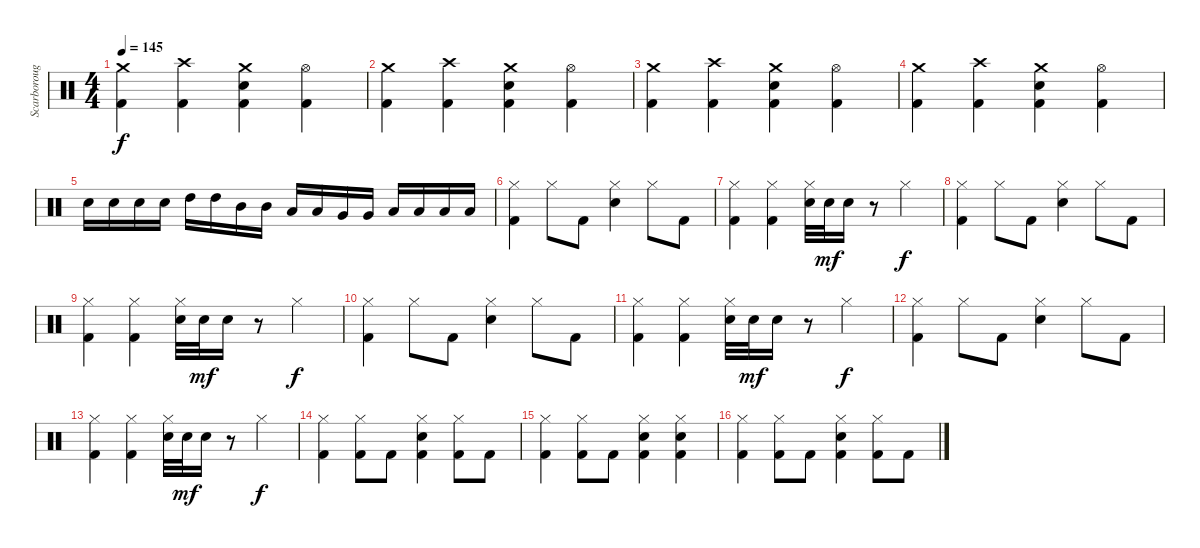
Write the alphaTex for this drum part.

\track ("Scarborough" "Scarboroug") {instrument percussion}
\staff {score}
\articulation defaults
\ts (4 4)
\tempo 145
\clef neutral
\ks c
("Crash medium (hit)" "Kick (hit) 2").4{dy f} ("Crash high (hit)" "Kick (hit) 2").4 ("Crash medium (hit)" "Kick (hit) 2" "Snare (hit) 2").4 ("Hi-Hat (open)" "Kick (hit) 2").4 |
("Crash medium (hit)" "Kick (hit) 2").4 ("Crash high (hit)" "Kick (hit) 2").4 ("Crash medium (hit)" "Kick (hit) 2" "Snare (hit) 2").4 ("Hi-Hat (open)" "Kick (hit) 2").4 |
("Crash medium (hit)" "Kick (hit) 2").4 ("Crash high (hit)" "Kick (hit) 2").4 ("Crash medium (hit)" "Kick (hit) 2" "Snare (hit) 2").4 ("Hi-Hat (open)" "Kick (hit) 2").4 |
("Crash medium (hit)" "Kick (hit) 2").4 ("Crash high (hit)" "Kick (hit) 2").4 ("Crash medium (hit)" "Kick (hit) 2" "Snare (hit) 2").4 ("Hi-Hat (open)" "Kick (hit) 2").4 |
"Snare (hit) 2".16 "Snare (hit) 2".16 "Snare (hit) 2".16 "Snare (hit) 2".16 "High Tom (hit)".16 "High Tom (hit)".16 "Mid Tom (hit)".16 "Mid Tom (hit)".16 "Low Tom (hit)".16 "Low Tom (hit)".16 "Very Low Tom (hit)".16 "Very Low Tom (hit)".16 "Low Floor Tom (hit)".16 "Low Floor Tom (hit)".16 "Low Floor Tom (hit)".16 "Low Floor Tom (hit)".16 |
("Hi-Hat (closed)" "Kick (hit) 2").4 "Hi-Hat (closed)".8 "Kick (hit) 2".8 ("Hi-Hat (closed)" "Snare (hit) 2").4 "Hi-Hat (closed)".8 "Kick (hit) 2".8 |
("Hi-Hat (closed)" "Kick (hit) 2").4 ("Hi-Hat (closed)" "Kick (hit) 2").4 ("Hi-Hat (closed)" "Snare (hit) 2").32 "Snare (hit) 2".32{dy mf} "Snare (hit) 2".16 r.8 "Hi-Hat (closed)".4{dy f} |
("Hi-Hat (closed)" "Kick (hit) 2").4 "Hi-Hat (closed)".8 "Kick (hit) 2".8 ("Hi-Hat (closed)" "Snare (hit) 2").4 "Hi-Hat (closed)".8 "Kick (hit) 2".8 |
("Hi-Hat (closed)" "Kick (hit) 2").4 ("Hi-Hat (closed)" "Kick (hit) 2").4 ("Hi-Hat (closed)" "Snare (hit) 2").32 "Snare (hit) 2".32{dy mf} "Snare (hit) 2".16 r.8 "Hi-Hat (closed)".4{dy f} |
("Hi-Hat (closed)" "Kick (hit) 2").4 "Hi-Hat (closed)".8 "Kick (hit) 2".8 ("Hi-Hat (closed)" "Snare (hit) 2").4 "Hi-Hat (closed)".8 "Kick (hit) 2".8 |
("Hi-Hat (closed)" "Kick (hit) 2").4 ("Hi-Hat (closed)" "Kick (hit) 2").4 ("Hi-Hat (closed)" "Snare (hit) 2").32 "Snare (hit) 2".32{dy mf} "Snare (hit) 2".16 r.8 "Hi-Hat (closed)".4{dy f} |
("Hi-Hat (closed)" "Kick (hit) 2").4 "Hi-Hat (closed)".8 "Kick (hit) 2".8 ("Hi-Hat (closed)" "Snare (hit) 2").4 "Hi-Hat (closed)".8 "Kick (hit) 2".8 |
("Hi-Hat (closed)" "Kick (hit) 2").4 ("Hi-Hat (closed)" "Kick (hit) 2").4 ("Hi-Hat (closed)" "Snare (hit) 2").32 "Snare (hit) 2".32{dy mf} "Snare (hit) 2".16 r.8 "Hi-Hat (closed)".4{dy f} |
("Hi-Hat (closed)" "Kick (hit) 2").4 ("Hi-Hat (closed)" "Kick (hit) 2").8 "Kick (hit) 2".8 ("Hi-Hat (closed)" "Kick (hit) 2" "Snare (hit) 2").4 ("Hi-Hat (closed)" "Kick (hit) 2").8 "Kick (hit) 2".8 |
("Hi-Hat (closed)" "Kick (hit) 2").4 ("Hi-Hat (closed)" "Kick (hit) 2").8 "Kick (hit) 2".8 ("Hi-Hat (closed)" "Kick (hit) 2" "Snare (hit) 2").4 ("Hi-Hat (closed)" "Kick (hit) 2" "Snare (hit) 2").4 |
("Hi-Hat (closed)" "Kick (hit) 2").4 ("Hi-Hat (closed)" "Kick (hit) 2").8 "Kick (hit) 2".8 ("Hi-Hat (closed)" "Kick (hit) 2" "Snare (hit) 2").4 ("Hi-Hat (closed)" "Kick (hit) 2").8 "Kick (hit) 2".8
